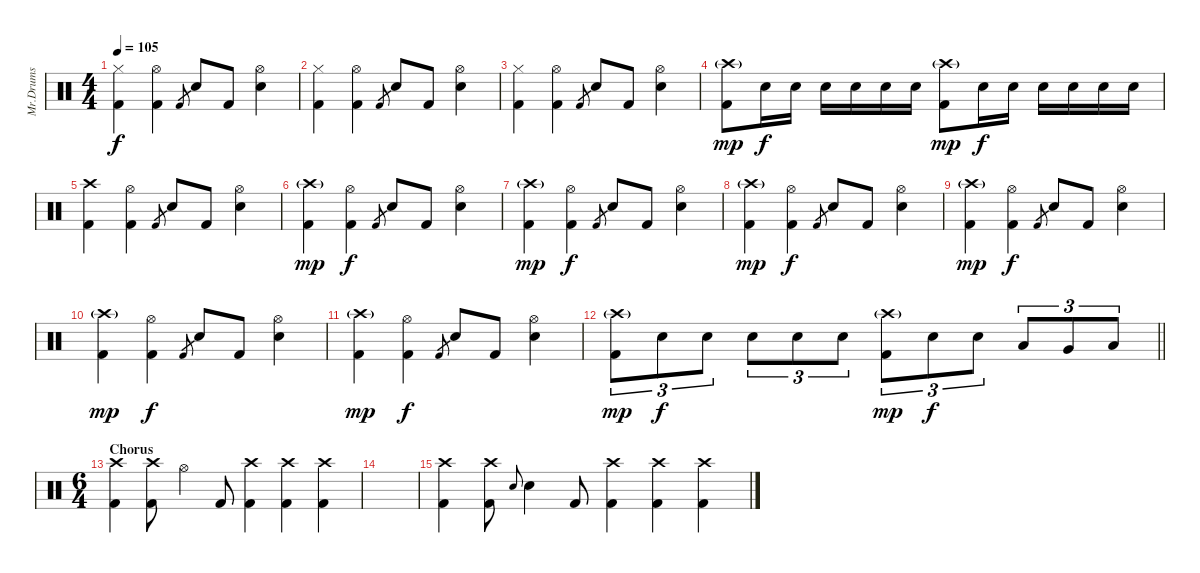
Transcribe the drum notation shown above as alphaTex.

\track ("Mr.Drums" "Mr.Drums") {instrument percussion}
\staff {score}
\articulation defaults
\ts (4 4)
\tempo 105
\clef neutral
\ks c
("Hi-Hat (closed)" "Kick (hit) 2").4{dy f} ("Hi-Hat (open)" "Kick (hit) 2").4 "Kick (hit) 2".8{gr} "Electric Snare (hit)".8 "Kick (hit) 2".8 ("Hi-Hat (open)" "Electric Snare (hit)").4 |
("Hi-Hat (closed)" "Kick (hit) 2").4 ("Hi-Hat (open)" "Kick (hit) 2").4 "Kick (hit) 2".8{gr} "Electric Snare (hit)".8 "Kick (hit) 2".8 ("Hi-Hat (open)" "Electric Snare (hit)").4 |
("Hi-Hat (closed)" "Kick (hit) 2").4 ("Hi-Hat (open)" "Kick (hit) 2").4 "Kick (hit) 2".8{gr} "Electric Snare (hit)".8 "Kick (hit) 2".8 ("Hi-Hat (open)" "Electric Snare (hit)").4 |
("Crash high (hit)"{g} "Kick (hit) 2").8{dy mp} "Electric Snare (hit)".16{dy f} "Electric Snare (hit)".16 "Electric Snare (hit)".16 "Electric Snare (hit)".16 "Electric Snare (hit)".16 "Electric Snare (hit)".16 ("Crash high (hit)"{g} "Kick (hit) 2").8{dy mp} "Electric Snare (hit)".16{dy f} "Electric Snare (hit)".16 "Electric Snare (hit)".16 "Electric Snare (hit)".16 "Electric Snare (hit)".16 "Electric Snare (hit)".16 |
("Crash high (hit)" "Kick (hit) 2").4 ("Hi-Hat (open)" "Kick (hit) 2").4 "Kick (hit) 2".8{gr} "Electric Snare (hit)".8 "Kick (hit) 2".8 ("Hi-Hat (open)" "Electric Snare (hit)").4 |
("Crash high (hit)"{g} "Kick (hit) 2").4{dy mp} ("Hi-Hat (open)" "Kick (hit) 2").4{dy f} "Kick (hit) 2".8{gr} "Electric Snare (hit)".8 "Kick (hit) 2".8 ("Hi-Hat (open)" "Electric Snare (hit)").4 |
("Crash high (hit)"{g} "Kick (hit) 2").4{dy mp} ("Hi-Hat (open)" "Kick (hit) 2").4{dy f} "Kick (hit) 2".8{gr} "Electric Snare (hit)".8 "Kick (hit) 2".8 ("Hi-Hat (open)" "Electric Snare (hit)").4 |
("Crash high (hit)"{g} "Kick (hit) 2").4{dy mp} ("Hi-Hat (open)" "Kick (hit) 2").4{dy f} "Kick (hit) 2".8{gr} "Electric Snare (hit)".8 "Kick (hit) 2".8 ("Hi-Hat (open)" "Electric Snare (hit)").4 |
("Crash high (hit)"{g} "Kick (hit) 2").4{dy mp} ("Hi-Hat (open)" "Kick (hit) 2").4{dy f} "Kick (hit) 2".8{gr} "Electric Snare (hit)".8 "Kick (hit) 2".8 ("Hi-Hat (open)" "Electric Snare (hit)").4 |
("Crash high (hit)"{g} "Kick (hit) 2").4{dy mp} ("Hi-Hat (open)" "Kick (hit) 2").4{dy f} "Kick (hit) 2".8{gr} "Electric Snare (hit)".8 "Kick (hit) 2".8 ("Hi-Hat (open)" "Electric Snare (hit)").4 |
("Crash high (hit)"{g} "Kick (hit) 2").4{dy mp} ("Hi-Hat (open)" "Kick (hit) 2").4{dy f} "Kick (hit) 2".8{gr} "Electric Snare (hit)".8 "Kick (hit) 2".8 ("Hi-Hat (open)" "Electric Snare (hit)").4 |
\barLineRight lightlight
("Crash high (hit)"{g} "Kick (hit) 2").8{tu (3 2) dy mp} "Electric Snare (hit)".8{tu (3 2) dy f} "Electric Snare (hit)".8{tu (3 2)} "Electric Snare (hit)".8{tu (3 2)} "Electric Snare (hit)".8{tu (3 2)} "Electric Snare (hit)".8{tu (3 2)} ("Crash high (hit)"{g} "Kick (hit) 2").8{tu (3 2) dy mp} "Electric Snare (hit)".8{tu (3 2) dy f} "Electric Snare (hit)".8{tu (3 2)} "Low Tom (hit)".8{tu (3 2)} "Very Low Tom (hit)".8{tu (3 2)} "Low Floor Tom (hit)".8{tu (3 2)} |
\ts (6 4)
\section ("" "Chorus")
("Crash high (hit)" "Kick (hit) 2").4 ("Crash high (hit)" "Kick (hit) 2").8 "Hi-Hat (open)".4 "Kick (hit) 2".8 ("Crash high (hit)" "Kick (hit) 2").4 ("Crash high (hit)" "Kick (hit) 2").4 ("Crash high (hit)" "Kick (hit) 2").4 |
|
("Crash high (hit)" "Kick (hit) 2").4 ("Crash high (hit)" "Kick (hit) 2").8 "Electric Snare (hit)".8{gr onbeat} "Electric Snare (hit)".4 "Kick (hit) 2".8 ("Crash high (hit)" "Kick (hit) 2").4 ("Crash high (hit)" "Kick (hit) 2").4 ("Crash high (hit)" "Kick (hit) 2").4
